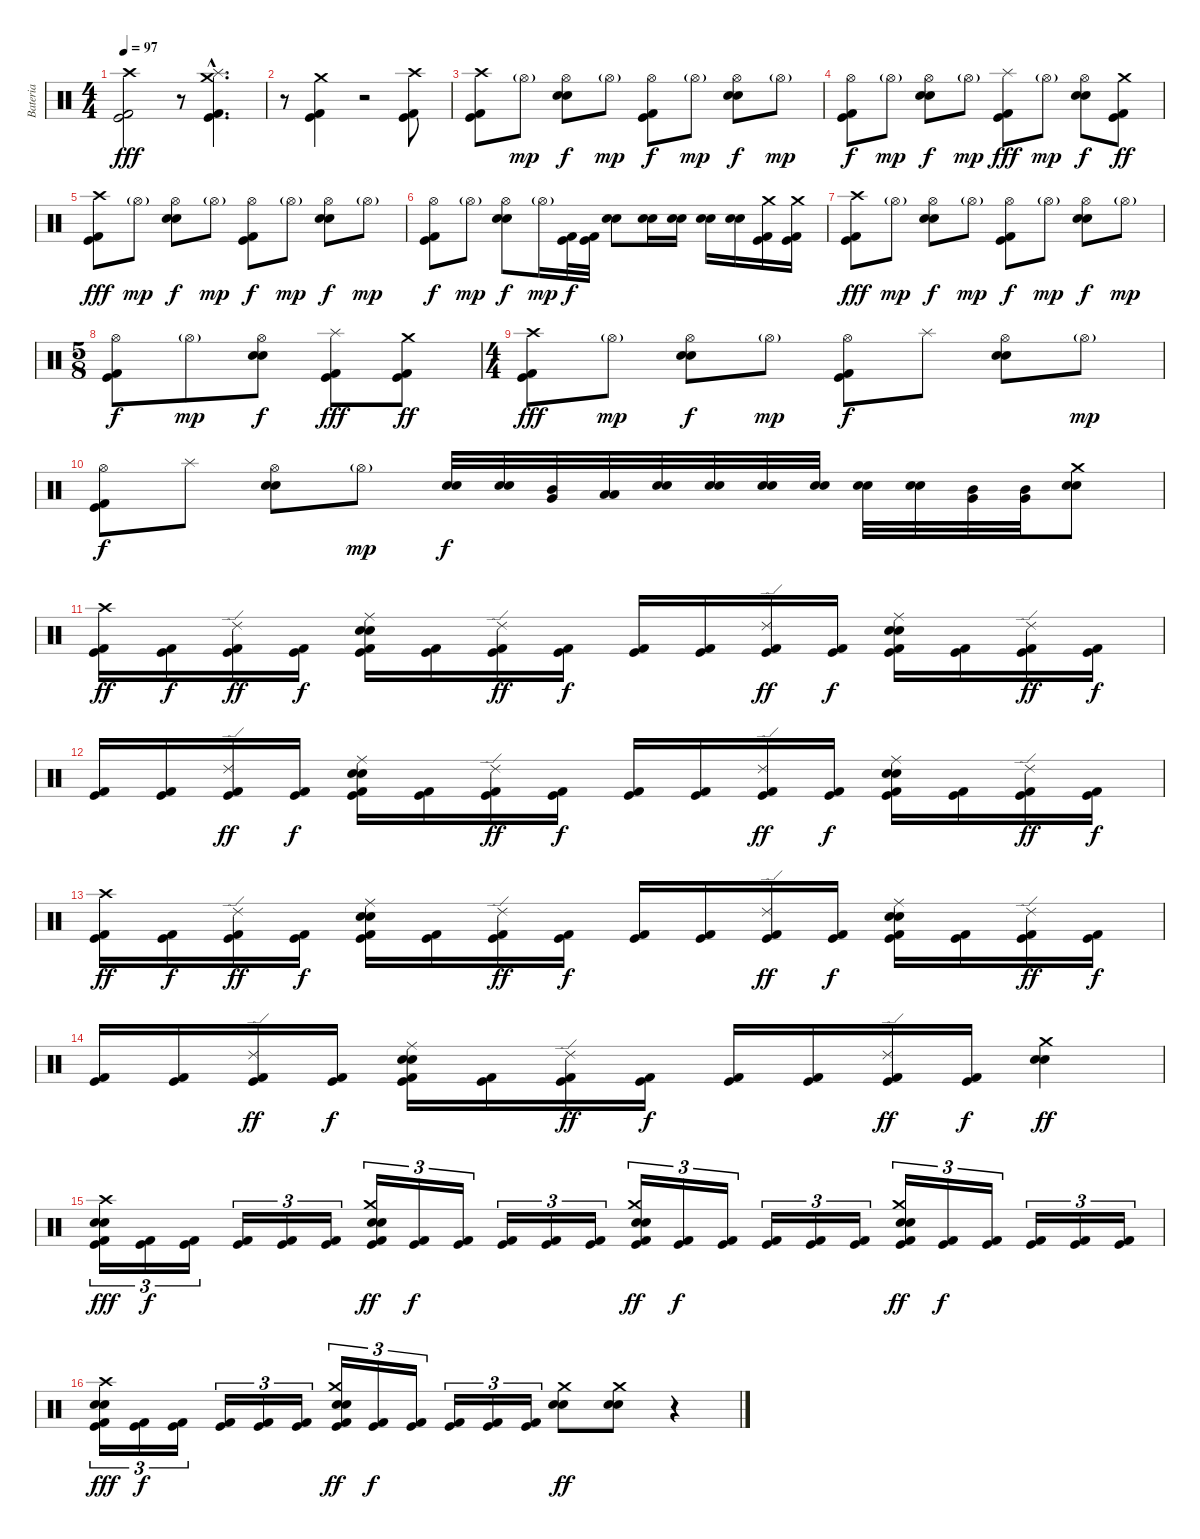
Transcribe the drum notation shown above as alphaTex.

\track ("Bateria" "Bateria") {instrument percussion}
\staff {score}
\articulation defaults
\ts (4 4)
\tempo 97
\clef neutral
\ks c
("Crash high (hit)" "Kick (hit) 2" "Kick (hit)").2{dy fff} r.8 ("Splash (hit)"{hac} "Crash medium (hit)"{hac} "Kick (hit) 2"{hac} "Kick (hit)"{hac}).4{d} |
r.8 ("Crash medium (hit)" "Kick (hit) 2" "Kick (hit)").4 r.2 ("Crash high (hit)" "Kick (hit) 2" "Kick (hit)").8 |
("Crash high (hit)" "Kick (hit) 2" "Kick (hit)").8 "Hi-Hat (open)"{g}.8{dy mp} ("Hi-Hat (open)" "Electric Snare (hit)" "Snare (hit) 2").8{dy f} "Hi-Hat (open)"{g}.8{dy mp} ("Hi-Hat (open)" "Kick (hit) 2" "Kick (hit)").8{dy f} "Hi-Hat (open)"{g}.8{dy mp} ("Hi-Hat (open)" "Electric Snare (hit)" "Snare (hit) 2").8{dy f} "Hi-Hat (open)"{g}.8{dy mp} |
("Hi-Hat (open)" "Kick (hit) 2" "Kick (hit)").8{dy f} "Hi-Hat (open)"{g}.8{dy mp} ("Hi-Hat (open)" "Electric Snare (hit)" "Snare (hit) 2").8{dy f} "Hi-Hat (open)"{g}.8{dy mp} ("Splash (hit)" "Kick (hit) 2" "Kick (hit)").8{dy fff} "Hi-Hat (open)"{g}.8{dy mp} ("Hi-Hat (open)" "Electric Snare (hit)" "Snare (hit) 2").8{dy f} ("Crash medium (hit)" "Kick (hit) 2" "Kick (hit)").8{dy ff} |
("Crash high (hit)" "Kick (hit) 2" "Kick (hit)").8{dy fff} "Hi-Hat (open)"{g}.8{dy mp} ("Hi-Hat (open)" "Electric Snare (hit)" "Snare (hit) 2").8{dy f} "Hi-Hat (open)"{g}.8{dy mp} ("Hi-Hat (open)" "Kick (hit) 2" "Kick (hit)").8{dy f} "Hi-Hat (open)"{g}.8{dy mp} ("Hi-Hat (open)" "Electric Snare (hit)" "Snare (hit) 2").8{dy f} "Hi-Hat (open)"{g}.8{dy mp} |
("Hi-Hat (open)" "Kick (hit) 2" "Kick (hit)").8{dy f} "Hi-Hat (open)"{g}.8{dy mp} ("Hi-Hat (open)" "Electric Snare (hit)" "Snare (hit) 2").8{dy f} "Hi-Hat (open)"{g}.16{dy mp} ("Kick (hit) 2" "Kick (hit)").32{dy f} ("Kick (hit) 2" "Kick (hit)").32 ("Electric Snare (hit)" "Snare (hit) 2").8 ("Electric Snare (hit)" "Snare (hit) 2").16 ("Electric Snare (hit)" "Snare (hit) 2").16 ("Electric Snare (hit)" "Snare (hit) 2").16 ("Electric Snare (hit)" "Snare (hit) 2").16 ("Crash medium (hit)" "Kick (hit) 2" "Kick (hit)").16 ("Crash medium (hit)" "Kick (hit) 2" "Kick (hit)").16 |
("Crash high (hit)" "Kick (hit) 2" "Kick (hit)").8{dy fff} "Hi-Hat (open)"{g}.8{dy mp} ("Hi-Hat (open)" "Electric Snare (hit)" "Snare (hit) 2").8{dy f} "Hi-Hat (open)"{g}.8{dy mp} ("Hi-Hat (open)" "Kick (hit) 2" "Kick (hit)").8{dy f} "Hi-Hat (open)"{g}.8{dy mp} ("Hi-Hat (open)" "Electric Snare (hit)" "Snare (hit) 2").8{dy f} "Hi-Hat (open)"{g}.8{dy mp} |
\ts (5 8)
("Hi-Hat (open)" "Kick (hit) 2" "Kick (hit)").8{dy f} "Hi-Hat (open)"{g}.8{dy mp} ("Hi-Hat (open)" "Electric Snare (hit)" "Snare (hit) 2").8{dy f} ("Splash (hit)" "Kick (hit) 2" "Kick (hit)").8{dy fff} ("Crash medium (hit)" "Kick (hit) 2" "Kick (hit)").8{dy ff} |
\ts (4 4)
("Crash high (hit)" "Kick (hit) 2" "Kick (hit)").8{dy fff} "Hi-Hat (open)"{g}.8{dy mp} ("Hi-Hat (open)" "Electric Snare (hit)" "Snare (hit) 2").8{dy f} "Hi-Hat (open)"{g}.8{dy mp} ("Hi-Hat (open)" "Kick (hit) 2" "Kick (hit)").8{dy f} "Splash (hit)".8 ("Hi-Hat (open)" "Electric Snare (hit)" "Snare (hit) 2").8 "Hi-Hat (open)"{g}.8{dy mp} |
("Hi-Hat (open)" "Kick (hit) 2" "Kick (hit)").8{dy f} "Splash (hit)".8 ("Hi-Hat (open)" "Electric Snare (hit)" "Snare (hit) 2").8 "Hi-Hat (open)"{g}.8{dy mp} ("Electric Snare (hit)" "Snare (hit) 2").32{dy f} ("Electric Snare (hit)" "Snare (hit) 2").32 ("Mid Tom (hit)" "Very Low Tom (hit)").32 ("Low Tom (hit)" "Low Floor Tom (hit)").32 ("Electric Snare (hit)" "Snare (hit) 2").32 ("Electric Snare (hit)" "Snare (hit) 2").32 ("Electric Snare (hit)" "Snare (hit) 2").32 ("Electric Snare (hit)" "Snare (hit) 2").32 ("Electric Snare (hit)" "Snare (hit) 2").32 ("Electric Snare (hit)" "Snare (hit) 2").32 ("Mid Tom (hit)" "Very Low Tom (hit)").32 ("Mid Tom (hit)" "Very Low Tom (hit)").32 ("Crash medium (hit)" "Electric Snare (hit)" "Snare (hit) 2").8 |
("Crash high (hit)" "Kick (hit) 2" "Kick (hit)").16{dy ff} ("Kick (hit) 2" "Kick (hit)").16{dy f} ("Ride (edge) 2" "Kick (hit) 2" "Kick (hit)").16{dy ff} ("Kick (hit) 2" "Kick (hit)").16{dy f} ("Ride (middle)" "Electric Snare (hit)" "Snare (hit) 2" "Kick (hit) 2" "Kick (hit)").16 ("Kick (hit) 2" "Kick (hit)").16 ("Ride (edge) 2" "Kick (hit) 2" "Kick (hit)").16{dy ff} ("Kick (hit) 2" "Kick (hit)").16{dy f} ("Kick (hit) 2" "Kick (hit)").16 ("Kick (hit) 2" "Kick (hit)").16 ("Ride (edge) 2" "Kick (hit) 2" "Kick (hit)").16{dy ff} ("Kick (hit) 2" "Kick (hit)").16{dy f} ("Ride (middle)" "Electric Snare (hit)" "Snare (hit) 2" "Kick (hit) 2" "Kick (hit)").16 ("Kick (hit) 2" "Kick (hit)").16 ("Ride (edge) 2" "Kick (hit) 2" "Kick (hit)").16{dy ff} ("Kick (hit) 2" "Kick (hit)").16{dy f} |
("Kick (hit) 2" "Kick (hit)").16 ("Kick (hit) 2" "Kick (hit)").16 ("Ride (edge) 2" "Kick (hit) 2" "Kick (hit)").16{dy ff} ("Kick (hit) 2" "Kick (hit)").16{dy f} ("Ride (middle)" "Electric Snare (hit)" "Snare (hit) 2" "Kick (hit) 2" "Kick (hit)").16 ("Kick (hit) 2" "Kick (hit)").16 ("Ride (edge) 2" "Kick (hit) 2" "Kick (hit)").16{dy ff} ("Kick (hit) 2" "Kick (hit)").16{dy f} ("Kick (hit) 2" "Kick (hit)").16 ("Kick (hit) 2" "Kick (hit)").16 ("Ride (edge) 2" "Kick (hit) 2" "Kick (hit)").16{dy ff} ("Kick (hit) 2" "Kick (hit)").16{dy f} ("Ride (middle)" "Electric Snare (hit)" "Snare (hit) 2" "Kick (hit) 2" "Kick (hit)").16 ("Kick (hit) 2" "Kick (hit)").16 ("Ride (edge) 2" "Kick (hit) 2" "Kick (hit)").16{dy ff} ("Kick (hit) 2" "Kick (hit)").16{dy f} |
("Crash high (hit)" "Kick (hit) 2" "Kick (hit)").16{dy ff} ("Kick (hit) 2" "Kick (hit)").16{dy f} ("Ride (edge) 2" "Kick (hit) 2" "Kick (hit)").16{dy ff} ("Kick (hit) 2" "Kick (hit)").16{dy f} ("Ride (middle)" "Electric Snare (hit)" "Snare (hit) 2" "Kick (hit) 2" "Kick (hit)").16 ("Kick (hit) 2" "Kick (hit)").16 ("Ride (edge) 2" "Kick (hit) 2" "Kick (hit)").16{dy ff} ("Kick (hit) 2" "Kick (hit)").16{dy f} ("Kick (hit) 2" "Kick (hit)").16 ("Kick (hit) 2" "Kick (hit)").16 ("Ride (edge) 2" "Kick (hit) 2" "Kick (hit)").16{dy ff} ("Kick (hit) 2" "Kick (hit)").16{dy f} ("Ride (middle)" "Electric Snare (hit)" "Snare (hit) 2" "Kick (hit) 2" "Kick (hit)").16 ("Kick (hit) 2" "Kick (hit)").16 ("Ride (edge) 2" "Kick (hit) 2" "Kick (hit)").16{dy ff} ("Kick (hit) 2" "Kick (hit)").16{dy f} |
("Kick (hit) 2" "Kick (hit)").16 ("Kick (hit) 2" "Kick (hit)").16 ("Ride (edge) 2" "Kick (hit) 2" "Kick (hit)").16{dy ff} ("Kick (hit) 2" "Kick (hit)").16{dy f} ("Ride (middle)" "Electric Snare (hit)" "Snare (hit) 2" "Kick (hit) 2" "Kick (hit)").16 ("Kick (hit) 2" "Kick (hit)").16 ("Ride (edge) 2" "Kick (hit) 2" "Kick (hit)").16{dy ff} ("Kick (hit) 2" "Kick (hit)").16{dy f} ("Kick (hit) 2" "Kick (hit)").16 ("Kick (hit) 2" "Kick (hit)").16 ("Ride (edge) 2" "Kick (hit) 2" "Kick (hit)").16{dy ff} ("Kick (hit) 2" "Kick (hit)").16{dy f} ("Crash medium (hit)" "Electric Snare (hit)" "Snare (hit) 2").4{dy ff} |
("Crash high (hit)" "Electric Snare (hit)" "Snare (hit) 2" "Kick (hit) 2" "Kick (hit)").16{tu (3 2) dy fff} ("Kick (hit) 2" "Kick (hit)").16{tu (3 2) dy f} ("Kick (hit) 2" "Kick (hit)").16{tu (3 2)} ("Kick (hit) 2" "Kick (hit)").16{tu (3 2)} ("Kick (hit) 2" "Kick (hit)").16{tu (3 2)} ("Kick (hit) 2" "Kick (hit)").16{tu (3 2)} ("Crash medium (hit)" "Electric Snare (hit)" "Snare (hit) 2" "Kick (hit) 2" "Kick (hit)").16{tu (3 2) dy ff} ("Kick (hit) 2" "Kick (hit)").16{tu (3 2) dy f} ("Kick (hit) 2" "Kick (hit)").16{tu (3 2)} ("Kick (hit) 2" "Kick (hit)").16{tu (3 2)} ("Kick (hit) 2" "Kick (hit)").16{tu (3 2)} ("Kick (hit) 2" "Kick (hit)").16{tu (3 2)} ("Crash medium (hit)" "Electric Snare (hit)" "Snare (hit) 2" "Kick (hit) 2" "Kick (hit)").16{tu (3 2) dy ff} ("Kick (hit) 2" "Kick (hit)").16{tu (3 2) dy f} ("Kick (hit) 2" "Kick (hit)").16{tu (3 2)} ("Kick (hit) 2" "Kick (hit)").16{tu (3 2)} ("Kick (hit) 2" "Kick (hit)").16{tu (3 2)} ("Kick (hit) 2" "Kick (hit)").16{tu (3 2)} ("Crash medium (hit)" "Electric Snare (hit)" "Snare (hit) 2" "Kick (hit) 2" "Kick (hit)").16{tu (3 2) dy ff} ("Kick (hit) 2" "Kick (hit)").16{tu (3 2) dy f} ("Kick (hit) 2" "Kick (hit)").16{tu (3 2)} ("Kick (hit) 2" "Kick (hit)").16{tu (3 2)} ("Kick (hit) 2" "Kick (hit)").16{tu (3 2)} ("Kick (hit) 2" "Kick (hit)").16{tu (3 2)} |
("Crash high (hit)" "Electric Snare (hit)" "Snare (hit) 2" "Kick (hit) 2" "Kick (hit)").16{tu (3 2) dy fff} ("Kick (hit) 2" "Kick (hit)").16{tu (3 2) dy f} ("Kick (hit) 2" "Kick (hit)").16{tu (3 2)} ("Kick (hit) 2" "Kick (hit)").16{tu (3 2)} ("Kick (hit) 2" "Kick (hit)").16{tu (3 2)} ("Kick (hit) 2" "Kick (hit)").16{tu (3 2)} ("Crash medium (hit)" "Electric Snare (hit)" "Snare (hit) 2" "Kick (hit) 2" "Kick (hit)").16{tu (3 2) dy ff} ("Kick (hit) 2" "Kick (hit)").16{tu (3 2) dy f} ("Kick (hit) 2" "Kick (hit)").16{tu (3 2)} ("Kick (hit) 2" "Kick (hit)").16{tu (3 2)} ("Kick (hit) 2" "Kick (hit)").16{tu (3 2)} ("Kick (hit) 2" "Kick (hit)").16{tu (3 2)} ("Crash medium (hit)" "Electric Snare (hit)" "Snare (hit) 2").8{dy ff} ("Crash medium (hit)" "Electric Snare (hit)" "Snare (hit) 2").8 r.4
